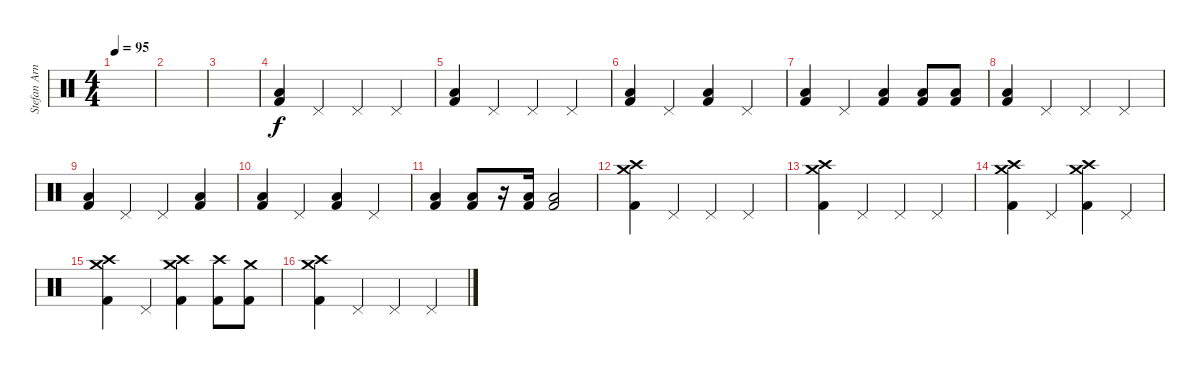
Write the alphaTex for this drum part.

\track ("Stefan Arnold (Drums)" "Stefan Arn") {instrument percussion}
\staff {score}
\articulation defaults
\ts (4 4)
\tempo 95
\clef neutral
\ks c
|
|
|
("Low Tom (hit)" "Kick (hit) 2").4 "Pedal Hi-Hat (hit)".4 "Pedal Hi-Hat (hit)".4 "Pedal Hi-Hat (hit)".4 |
("Low Tom (hit)" "Kick (hit) 2").4 "Pedal Hi-Hat (hit)".4 "Pedal Hi-Hat (hit)".4 "Pedal Hi-Hat (hit)".4 |
("Low Tom (hit)" "Kick (hit) 2").4 "Pedal Hi-Hat (hit)".4 ("Low Tom (hit)" "Kick (hit) 2").4 "Pedal Hi-Hat (hit)".4 |
("Low Tom (hit)" "Kick (hit) 2").4 "Pedal Hi-Hat (hit)".4 ("Low Tom (hit)" "Kick (hit) 2").4 ("Low Tom (hit)" "Kick (hit) 2").8 ("Low Tom (hit)" "Kick (hit) 2").8 |
("Low Tom (hit)" "Kick (hit) 2").4 "Pedal Hi-Hat (hit)".4 "Pedal Hi-Hat (hit)".4 "Pedal Hi-Hat (hit)".4 |
("Low Tom (hit)" "Kick (hit) 2").4 "Pedal Hi-Hat (hit)".4 "Pedal Hi-Hat (hit)".4 ("Low Tom (hit)" "Kick (hit) 2").4 |
("Low Tom (hit)" "Kick (hit) 2").4 "Pedal Hi-Hat (hit)".4 ("Low Tom (hit)" "Kick (hit) 2").4 "Pedal Hi-Hat (hit)".4 |
("Low Tom (hit)" "Kick (hit) 2").4 ("Low Tom (hit)" "Kick (hit) 2").8 r.16 ("Low Tom (hit)" "Kick (hit) 2").16 ("Low Tom (hit)" "Kick (hit) 2").2 |
("Crash high (hit)" "Crash medium (hit)" "Kick (hit) 2").4 "Pedal Hi-Hat (hit)".4 "Pedal Hi-Hat (hit)".4 "Pedal Hi-Hat (hit)".4 |
("Crash high (hit)" "Crash medium (hit)" "Kick (hit) 2").4 "Pedal Hi-Hat (hit)".4 "Pedal Hi-Hat (hit)".4 "Pedal Hi-Hat (hit)".4 |
("Crash high (hit)" "Crash medium (hit)" "Kick (hit) 2").4 "Pedal Hi-Hat (hit)".4 ("Crash medium (hit)" "Crash high (hit)" "Kick (hit) 2").4 "Pedal Hi-Hat (hit)".4 |
("Crash high (hit)" "Crash medium (hit)" "Kick (hit) 2").4 "Pedal Hi-Hat (hit)".4 ("Crash medium (hit)" "Crash high (hit)" "Kick (hit) 2").4 ("Crash high (hit)" "Kick (hit) 2").8 ("Crash medium (hit)" "Kick (hit) 2").8 |
("Crash high (hit)" "Crash medium (hit)" "Kick (hit) 2").4 "Pedal Hi-Hat (hit)".4 "Pedal Hi-Hat (hit)".4 "Pedal Hi-Hat (hit)".4
